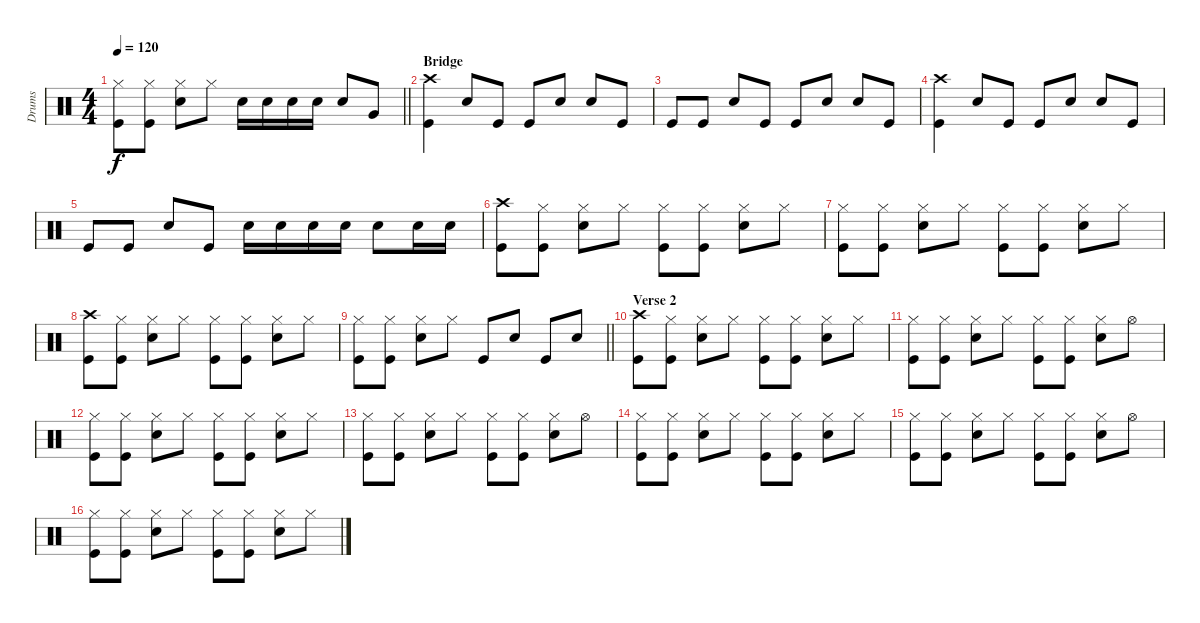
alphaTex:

\track ("Drums" "Drums") {instrument percussion}
\staff {score}
\articulation defaults
\ts (4 4)
\tempo 120
\clef neutral
\barLineRight lightlight
\ks c
("Hi-Hat (closed)" "Kick (hit)").8{dy f} ("Hi-Hat (closed)" "Kick (hit)").8 ("Hi-Hat (closed)" "Snare (hit) 2").8 "Hi-Hat (closed)".8 "Snare (hit) 2".16 "Snare (hit) 2".16 "Snare (hit) 2".16 "Snare (hit) 2".16 "Snare (hit) 2".8 "Very Low Tom (hit)".8 |
\section ("" "Bridge")
("Kick (hit)" "Crash high (hit)").4 "Snare (hit) 2".8 "Kick (hit)".8 "Kick (hit)".8 "Snare (hit) 2".8 "Snare (hit) 2".8 "Kick (hit)".8 |
"Kick (hit)".8 "Kick (hit)".8 "Snare (hit) 2".8 "Kick (hit)".8 "Kick (hit)".8 "Snare (hit) 2".8 "Snare (hit) 2".8 "Kick (hit)".8 |
("Kick (hit)" "Crash high (hit)").4 "Snare (hit) 2".8 "Kick (hit)".8 "Kick (hit)".8 "Snare (hit) 2".8 "Snare (hit) 2".8 "Kick (hit)".8 |
"Kick (hit)".8 "Kick (hit)".8 "Snare (hit) 2".8 "Kick (hit)".8 "Snare (hit) 2".16 "Snare (hit) 2".16 "Snare (hit) 2".16 "Snare (hit) 2".16 "Snare (hit) 2".8 "Snare (hit) 2".16 "Snare (hit) 2".16 |
("Crash high (hit)" "Kick (hit)").8 ("Hi-Hat (closed)" "Kick (hit)").8 ("Hi-Hat (closed)" "Snare (hit) 2").8 "Hi-Hat (closed)".8 ("Hi-Hat (closed)" "Kick (hit)").8 ("Hi-Hat (closed)" "Kick (hit)").8 ("Hi-Hat (closed)" "Snare (hit) 2").8 "Hi-Hat (closed)".8 |
("Hi-Hat (closed)" "Kick (hit)").8 ("Hi-Hat (closed)" "Kick (hit)").8 ("Hi-Hat (closed)" "Snare (hit) 2").8 "Hi-Hat (closed)".8 ("Hi-Hat (closed)" "Kick (hit)").8 ("Hi-Hat (closed)" "Kick (hit)").8 ("Hi-Hat (closed)" "Snare (hit) 2").8 "Hi-Hat (closed)".8 |
("Crash high (hit)" "Kick (hit)").8 ("Hi-Hat (closed)" "Kick (hit)").8 ("Hi-Hat (closed)" "Snare (hit) 2").8 "Hi-Hat (closed)".8 ("Hi-Hat (closed)" "Kick (hit)").8 ("Hi-Hat (closed)" "Kick (hit)").8 ("Hi-Hat (closed)" "Snare (hit) 2").8 "Hi-Hat (closed)".8 |
\barLineRight lightlight
("Hi-Hat (closed)" "Kick (hit)").8 ("Hi-Hat (closed)" "Kick (hit)").8 ("Hi-Hat (closed)" "Snare (hit) 2").8 "Hi-Hat (closed)".8 "Kick (hit)".8 "Snare (hit) 2".8 "Kick (hit)".8 "Snare (hit) 2".8 |
\section ("" "Verse 2")
("Crash high (hit)" "Kick (hit)").8 ("Hi-Hat (closed)" "Kick (hit)").8 ("Hi-Hat (closed)" "Snare (hit) 2").8 "Hi-Hat (closed)".8 ("Hi-Hat (closed)" "Kick (hit)").8 ("Hi-Hat (closed)" "Kick (hit)").8 ("Hi-Hat (closed)" "Snare (hit) 2").8 "Hi-Hat (closed)".8 |
("Hi-Hat (closed)" "Kick (hit)").8 ("Hi-Hat (closed)" "Kick (hit)").8 ("Hi-Hat (closed)" "Snare (hit) 2").8 "Hi-Hat (closed)".8 ("Hi-Hat (closed)" "Kick (hit)").8 ("Hi-Hat (closed)" "Kick (hit)").8 ("Hi-Hat (closed)" "Snare (hit) 2").8 "Hi-Hat (open)".8 |
("Hi-Hat (closed)" "Kick (hit)").8 ("Hi-Hat (closed)" "Kick (hit)").8 ("Hi-Hat (closed)" "Snare (hit) 2").8 "Hi-Hat (closed)".8 ("Hi-Hat (closed)" "Kick (hit)").8 ("Hi-Hat (closed)" "Kick (hit)").8 ("Hi-Hat (closed)" "Snare (hit) 2").8 "Hi-Hat (closed)".8 |
("Hi-Hat (closed)" "Kick (hit)").8 ("Hi-Hat (closed)" "Kick (hit)").8 ("Hi-Hat (closed)" "Snare (hit) 2").8 "Hi-Hat (closed)".8 ("Hi-Hat (closed)" "Kick (hit)").8 ("Hi-Hat (closed)" "Kick (hit)").8 ("Hi-Hat (closed)" "Snare (hit) 2").8 "Hi-Hat (open)".8 |
("Hi-Hat (closed)" "Kick (hit)").8 ("Hi-Hat (closed)" "Kick (hit)").8 ("Hi-Hat (closed)" "Snare (hit) 2").8 "Hi-Hat (closed)".8 ("Hi-Hat (closed)" "Kick (hit)").8 ("Hi-Hat (closed)" "Kick (hit)").8 ("Hi-Hat (closed)" "Snare (hit) 2").8 "Hi-Hat (closed)".8 |
("Hi-Hat (closed)" "Kick (hit)").8 ("Hi-Hat (closed)" "Kick (hit)").8 ("Hi-Hat (closed)" "Snare (hit) 2").8 "Hi-Hat (closed)".8 ("Hi-Hat (closed)" "Kick (hit)").8 ("Hi-Hat (closed)" "Kick (hit)").8 ("Hi-Hat (closed)" "Snare (hit) 2").8 "Hi-Hat (open)".8 |
("Hi-Hat (closed)" "Kick (hit)").8 ("Hi-Hat (closed)" "Kick (hit)").8 ("Hi-Hat (closed)" "Snare (hit) 2").8 "Hi-Hat (closed)".8 ("Hi-Hat (closed)" "Kick (hit)").8 ("Hi-Hat (closed)" "Kick (hit)").8 ("Hi-Hat (closed)" "Snare (hit) 2").8 "Hi-Hat (closed)".8
